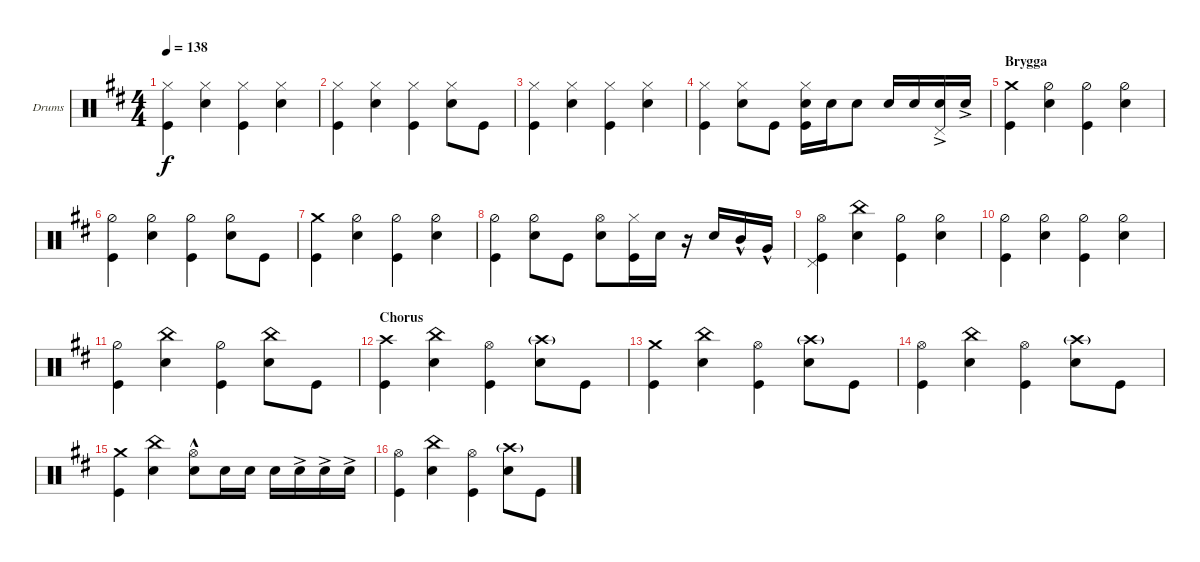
\defaultSystemsLayout 4
\bracketExtendMode groupsimilarinstruments
\firstSystemTrackNameOrientation horizontal
\otherSystemsTrackNameOrientation horizontal
\track ("Drumkit" "Drums") {instrument percussion}
\staff {score}
\articulation defaults
\ts (4 4)
\tempo 138
\clef neutral
\ks d
("Hi-Hat (closed)" "Kick (hit)").4{dy f} ("Hi-Hat (closed)" "Snare (hit) 2").4 ("Hi-Hat (closed)" "Kick (hit)").4 ("Hi-Hat (closed)" "Snare (hit) 2").4 |
("Hi-Hat (closed)" "Kick (hit)").4 ("Hi-Hat (closed)" "Snare (hit) 2").4 ("Hi-Hat (closed)" "Kick (hit)").4 ("Hi-Hat (closed)" "Snare (hit) 2").8 "Kick (hit)".8 |
("Hi-Hat (closed)" "Kick (hit)").4 ("Hi-Hat (closed)" "Snare (hit) 2").4 ("Hi-Hat (closed)" "Kick (hit)").4 ("Hi-Hat (closed)" "Snare (hit) 2").4 |
("Hi-Hat (closed)" "Kick (hit)").4 ("Hi-Hat (closed)" "Snare (hit) 2").8 "Kick (hit)".8 ("Hi-Hat (closed)" "Kick (hit)" "Snare (hit) 2").16 "Snare (hit) 2".16 "Snare (hit) 2".8 "Snare (hit) 2".16 "Snare (hit) 2".16 ("Snare (hit) 2"{ac} "Pedal Hi-Hat (hit)").16 "Snare (hit) 2"{ac}.16 |
\section ("" "Brygga")
("Kick (hit)" "Crash medium (hit)").4 ("Hi-Hat (half)" "Snare (hit) 2").4 ("Hi-Hat (half)" "Kick (hit)").4 ("Hi-Hat (half)" "Snare (hit) 2").4 |
("Kick (hit)" "Hi-Hat (half)").4 ("Hi-Hat (half)" "Snare (hit) 2").4 ("Hi-Hat (half)" "Kick (hit)").4 ("Hi-Hat (half)" "Snare (hit) 2").8 "Kick (hit)".8 |
("Kick (hit)" "Crash medium (hit)").4 ("Hi-Hat (half)" "Snare (hit) 2").4 ("Hi-Hat (half)" "Kick (hit)").4 ("Hi-Hat (half)" "Snare (hit) 2").4 |
("Kick (hit)" "Hi-Hat (half)").4 ("Hi-Hat (half)" "Snare (hit) 2").8 "Kick (hit)".8 ("Snare (hit) 2" "Hi-Hat (open)").8 ("Kick (hit)" "Hi-Hat (closed)").16 "Snare (hit) 2".16 r.16 "Snare (hit) 2".16 "Mid Tom (hit)"{hac}.16 "Very Low Tom (hit)"{hac}.16 |
("Kick (hit)" "Pedal Hi-Hat (hit)" "Hi-Hat (open)").4 ("Snare (hit) 2" "China (hit)").4 ("Hi-Hat (half)" "Kick (hit)").4 ("Hi-Hat (half)" "Snare (hit) 2").4 |
("Kick (hit)" "Hi-Hat (half)").4 ("Hi-Hat (half)" "Snare (hit) 2").4 ("Hi-Hat (half)" "Kick (hit)").4 ("Hi-Hat (half)" "Snare (hit) 2").4 |
("Kick (hit)" "Hi-Hat (half)").4 ("Snare (hit) 2" "China (hit)").4 ("Hi-Hat (half)" "Kick (hit)").4 ("Snare (hit) 2" "China (hit)").8 "Kick (hit)".8 |
\section ("" "Chorus")
("Kick (hit)" "Crash high (hit)").4 ("Snare (hit) 2" "China (hit)").4 ("Kick (hit)" "Hi-Hat (open)").4 ("Snare (hit) 2" "Crash high (hit)"{g}).8 "Kick (hit)".8 |
("Kick (hit)" "Crash medium (hit)").4 ("Snare (hit) 2" "China (hit)").4 ("Kick (hit)" "Hi-Hat (open)").4 ("Snare (hit) 2" "Crash high (hit)"{g}).8 "Kick (hit)".8 |
("Kick (hit)" "Hi-Hat (open)").4 ("Snare (hit) 2" "China (hit)").4 ("Kick (hit)" "Hi-Hat (open)").4 ("Snare (hit) 2" "Crash high (hit)"{g}).8 "Kick (hit)".8 |
("Kick (hit)" "Crash medium (hit)").4 ("Snare (hit) 2" "China (hit)").4 ("Snare (hit) 2"{hac} "Hi-Hat (open)").8 "Snare (hit) 2".16 "Snare (hit) 2".16 "Snare (hit) 2".16 "Snare (hit) 2"{ac}.16 "Snare (hit) 2"{ac}.16 "Snare (hit) 2"{ac}.16 |
("Kick (hit)" "Hi-Hat (open)").4 ("Snare (hit) 2" "China (hit)").4 ("Kick (hit)" "Hi-Hat (open)").4 ("Snare (hit) 2" "Crash high (hit)"{g}).8 "Kick (hit)".8
